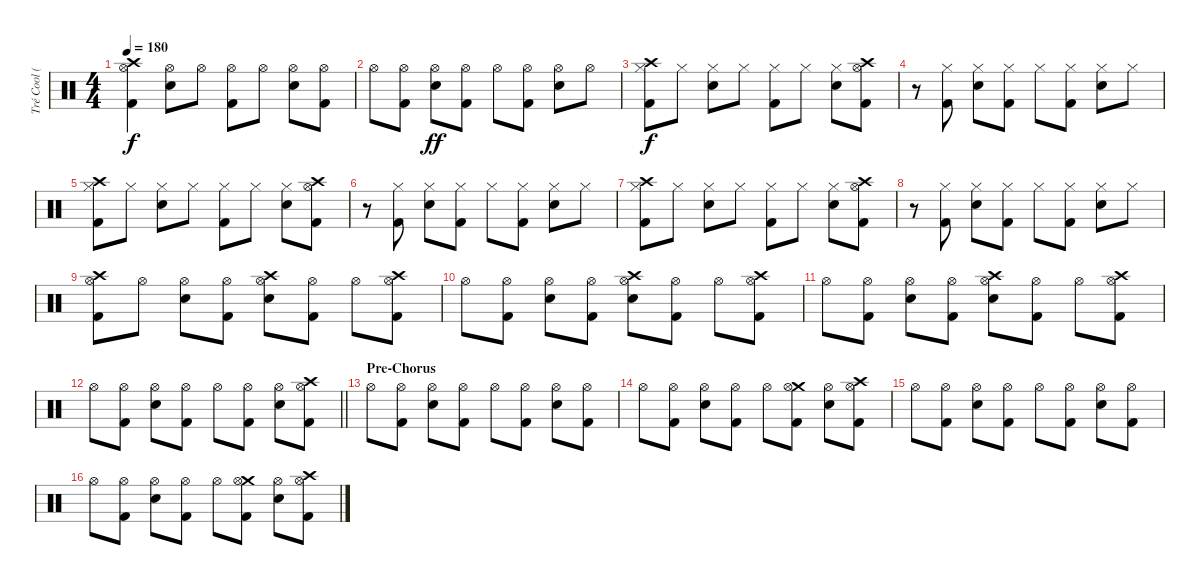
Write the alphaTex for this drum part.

\track ("Tré Cool (Drums)" "Tré Cool (") {instrument percussion}
\staff {score}
\articulation defaults
\ts (4 4)
\tempo 180
\clef neutral
\ks c
("Crash high (hit)" "Hi-Hat (open)" "Kick (hit) 2").4{dy f} ("Hi-Hat (open)" "Electric Snare (hit)").8 "Hi-Hat (open)".8 ("Hi-Hat (open)" "Kick (hit) 2").8 "Hi-Hat (open)".8 ("Hi-Hat (open)" "Electric Snare (hit)").8 ("Hi-Hat (open)" "Kick (hit) 2").8 |
"Hi-Hat (open)".8 ("Hi-Hat (open)" "Kick (hit) 2").8 ("Hi-Hat (open)" "Electric Snare (hit)").8{dy ff} ("Hi-Hat (open)" "Kick (hit) 2").8 "Hi-Hat (open)".8 ("Hi-Hat (open)" "Kick (hit) 2").8 ("Hi-Hat (open)" "Electric Snare (hit)").8 "Hi-Hat (open)".8 |
("Crash high (hit)" "Hi-Hat (closed)" "Kick (hit) 2").8{dy f} "Hi-Hat (closed)".8 ("Hi-Hat (closed)" "Electric Snare (hit)").8 "Hi-Hat (closed)".8 ("Hi-Hat (closed)" "Kick (hit) 2").8 "Hi-Hat (closed)".8 ("Hi-Hat (closed)" "Electric Snare (hit)").8 ("Crash high (hit)" "Hi-Hat (open)" "Kick (hit) 2").8 |
r.8 ("Hi-Hat (closed)" "Kick (hit) 2").8 ("Hi-Hat (closed)" "Electric Snare (hit)").8 ("Hi-Hat (closed)" "Kick (hit) 2").8 "Hi-Hat (closed)".8 ("Hi-Hat (closed)" "Kick (hit) 2").8 ("Hi-Hat (closed)" "Electric Snare (hit)").8 "Hi-Hat (closed)".8 |
("Crash high (hit)" "Hi-Hat (closed)" "Kick (hit) 2").8 "Hi-Hat (closed)".8 ("Hi-Hat (closed)" "Electric Snare (hit)").8 "Hi-Hat (closed)".8 ("Hi-Hat (closed)" "Kick (hit) 2").8 "Hi-Hat (closed)".8 ("Hi-Hat (closed)" "Electric Snare (hit)").8 ("Crash high (hit)" "Hi-Hat (open)" "Kick (hit) 2").8 |
r.8 ("Hi-Hat (closed)" "Kick (hit) 2").8 ("Hi-Hat (closed)" "Electric Snare (hit)").8 ("Hi-Hat (closed)" "Kick (hit) 2").8 "Hi-Hat (closed)".8 ("Hi-Hat (closed)" "Kick (hit) 2").8 ("Hi-Hat (closed)" "Electric Snare (hit)").8 "Hi-Hat (closed)".8 |
("Crash high (hit)" "Hi-Hat (closed)" "Kick (hit) 2").8 "Hi-Hat (closed)".8 ("Hi-Hat (closed)" "Electric Snare (hit)").8 "Hi-Hat (closed)".8 ("Hi-Hat (closed)" "Kick (hit) 2").8 "Hi-Hat (closed)".8 ("Hi-Hat (closed)" "Electric Snare (hit)").8 ("Crash high (hit)" "Hi-Hat (open)" "Kick (hit) 2").8 |
r.8 ("Hi-Hat (closed)" "Kick (hit) 2").8 ("Hi-Hat (closed)" "Electric Snare (hit)").8 ("Hi-Hat (closed)" "Kick (hit) 2").8 "Hi-Hat (closed)".8 ("Hi-Hat (closed)" "Kick (hit) 2").8 ("Hi-Hat (closed)" "Electric Snare (hit)").8 "Hi-Hat (closed)".8 |
("Crash high (hit)" "Hi-Hat (open)" "Kick (hit) 2").8 "Hi-Hat (open)".8 ("Hi-Hat (open)" "Electric Snare (hit)").8 ("Hi-Hat (open)" "Kick (hit) 2").8 ("Crash high (hit)" "Hi-Hat (open)" "Electric Snare (hit)").8 ("Hi-Hat (open)" "Kick (hit) 2").8 "Hi-Hat (open)".8 ("Crash high (hit)" "Hi-Hat (open)" "Kick (hit) 2").8 |
"Hi-Hat (open)".8 ("Hi-Hat (open)" "Kick (hit) 2").8 ("Hi-Hat (open)" "Electric Snare (hit)").8 ("Hi-Hat (open)" "Kick (hit) 2").8 ("Crash high (hit)" "Hi-Hat (open)" "Electric Snare (hit)").8 ("Hi-Hat (open)" "Kick (hit) 2").8 "Hi-Hat (open)".8 ("Crash high (hit)" "Hi-Hat (open)" "Kick (hit) 2").8 |
"Hi-Hat (open)".8 ("Hi-Hat (open)" "Kick (hit) 2").8 ("Hi-Hat (open)" "Electric Snare (hit)").8 ("Hi-Hat (open)" "Kick (hit) 2").8 ("Crash high (hit)" "Hi-Hat (open)" "Electric Snare (hit)").8 ("Hi-Hat (open)" "Kick (hit) 2").8 "Hi-Hat (open)".8 ("Crash high (hit)" "Hi-Hat (open)" "Kick (hit) 2").8 |
\barLineRight lightlight "Hi-Hat (open)".8
("Hi-Hat (open)" "Kick (hit) 2").8 ("Hi-Hat (open)" "Electric Snare (hit)").8 ("Hi-Hat (open)" "Kick (hit) 2").8 "Hi-Hat (open)".8 ("Hi-Hat (open)" "Kick (hit) 2").8 ("Hi-Hat (open)" "Electric Snare (hit)").8 ("Crash high (hit)" "Hi-Hat (open)" "Kick (hit) 2").8 |
\section ("" "Pre-Chorus")
"Hi-Hat (open)".8 ("Hi-Hat (open)" "Kick (hit) 2").8 ("Hi-Hat (open)" "Electric Snare (hit)").8 ("Hi-Hat (open)" "Kick (hit) 2").8 "Hi-Hat (open)".8 ("Hi-Hat (open)" "Kick (hit) 2").8 ("Hi-Hat (open)" "Electric Snare (hit)").8 ("Hi-Hat (open)" "Kick (hit) 2").8 |
"Hi-Hat (open)".8 ("Hi-Hat (open)" "Kick (hit) 2").8 ("Hi-Hat (open)" "Electric Snare (hit)").8 ("Hi-Hat (open)" "Kick (hit) 2").8 "Hi-Hat (open)".8 ("Crash medium (hit)" "Hi-Hat (open)" "Kick (hit) 2").8 ("Hi-Hat (open)" "Electric Snare (hit)").8 ("Crash high (hit)" "Hi-Hat (open)" "Kick (hit) 2").8 |
"Hi-Hat (open)".8 ("Hi-Hat (open)" "Kick (hit) 2").8 ("Hi-Hat (open)" "Electric Snare (hit)").8 ("Hi-Hat (open)" "Kick (hit) 2").8 "Hi-Hat (open)".8 ("Hi-Hat (open)" "Kick (hit) 2").8 ("Hi-Hat (open)" "Electric Snare (hit)").8 ("Hi-Hat (open)" "Kick (hit) 2").8 |
"Hi-Hat (open)".8 ("Hi-Hat (open)" "Kick (hit) 2").8 ("Hi-Hat (open)" "Electric Snare (hit)").8 ("Hi-Hat (open)" "Kick (hit) 2").8 "Hi-Hat (open)".8 ("Crash medium (hit)" "Hi-Hat (open)" "Kick (hit) 2").8 ("Hi-Hat (open)" "Electric Snare (hit)").8 ("Crash high (hit)" "Hi-Hat (open)" "Kick (hit) 2").8
